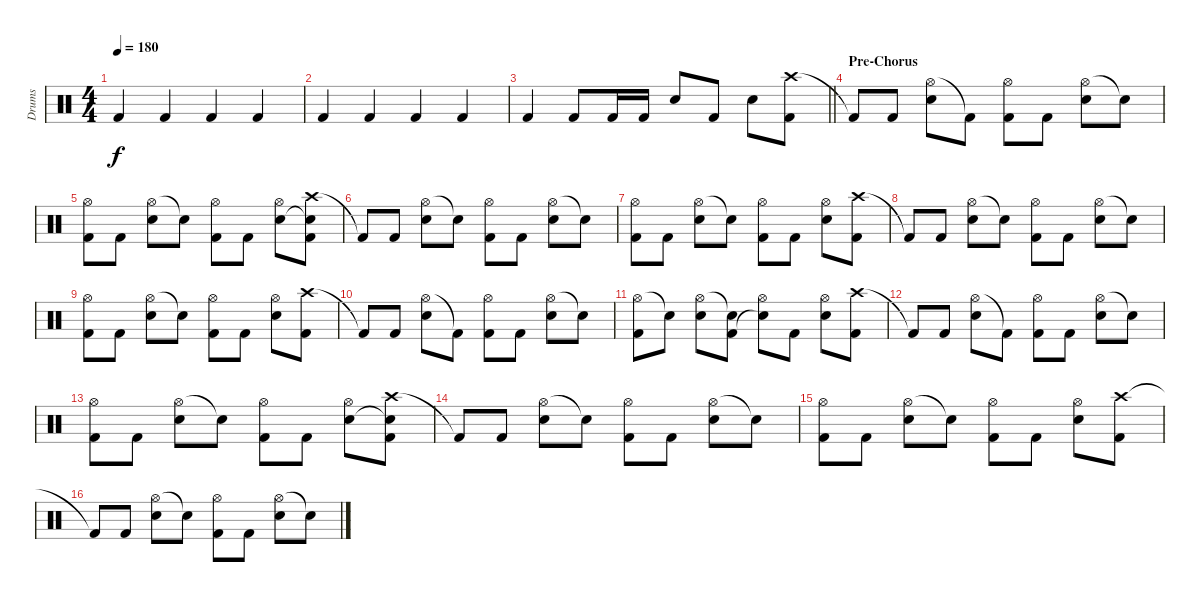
\track ("Drums" "Drums") {instrument percussion}
\staff {score}
\articulation defaults
\ts (4 4)
\tempo 180
\clef neutral
\ks c "Kick (hit) 2".4{dy f} "Kick (hit) 2".4 "Kick (hit) 2".4 "Kick (hit) 2".4
|
"Kick (hit) 2".4 "Kick (hit) 2".4 "Kick (hit) 2".4 "Kick (hit) 2".4 |
\barLineRight lightlight "Kick (hit) 2".4 "Kick (hit) 2".8 "Kick (hit) 2".16 "Kick (hit) 2".16 "Electric Snare (hit)".8 "Kick (hit) 2".8 "Electric Snare (hit)".8
("Crash high (hit)" "Kick (hit) 2").8 |
\section ("" "Pre-Chorus")
"Kick (hit) 2"{t}.8 "Kick (hit) 2".8 ("Hi-Hat (open)" "Electric Snare (hit)").8 "Kick (hit) 2"{t}.8 ("Hi-Hat (open)" "Kick (hit) 2").8 "Kick (hit) 2".8 ("Hi-Hat (open)" "Electric Snare (hit)").8 "Snare (hit)"{t}.8 |
("Hi-Hat (open)" "Kick (hit) 2").8 "Kick (hit) 2".8 ("Hi-Hat (open)" "Electric Snare (hit)").8 "Snare (hit)"{t}.8 ("Hi-Hat (open)" "Kick (hit) 2").8 "Kick (hit) 2".8 ("Hi-Hat (open)" "Electric Snare (hit)").8 ("Crash high (hit)" "Snare (hit)"{t} "Kick (hit) 2").8 |
"Kick (hit) 2"{t}.8 "Kick (hit) 2".8 ("Hi-Hat (open)" "Electric Snare (hit)").8 "Snare (hit)"{t}.8 ("Hi-Hat (open)" "Kick (hit) 2").8 "Kick (hit) 2".8 ("Hi-Hat (open)" "Electric Snare (hit)").8 "Snare (hit)"{t}.8 |
("Hi-Hat (open)" "Kick (hit) 2").8 "Kick (hit) 2".8 ("Hi-Hat (open)" "Electric Snare (hit)").8 "Snare (hit)"{t}.8 ("Hi-Hat (open)" "Kick (hit) 2").8 "Kick (hit) 2".8 ("Hi-Hat (open)" "Electric Snare (hit)").8 ("Crash high (hit)" "Kick (hit) 2").8 |
"Kick (hit) 2"{t}.8 "Kick (hit) 2".8 ("Hi-Hat (open)" "Electric Snare (hit)").8 "Snare (hit)"{t}.8 ("Hi-Hat (open)" "Kick (hit) 2").8 "Kick (hit) 2".8 ("Hi-Hat (open)" "Electric Snare (hit)").8 "Snare (hit)"{t}.8 |
("Hi-Hat (open)" "Kick (hit) 2").8 "Kick (hit) 2".8 ("Hi-Hat (open)" "Electric Snare (hit)").8 "Snare (hit)"{t}.8 ("Hi-Hat (open)" "Kick (hit) 2").8 "Kick (hit) 2".8 ("Hi-Hat (open)" "Electric Snare (hit)").8 ("Crash high (hit)" "Kick (hit) 2").8 |
"Kick (hit) 2"{t}.8 "Kick (hit) 2".8 ("Hi-Hat (open)" "Electric Snare (hit)").8 "Kick (hit) 2"{t}.8 ("Hi-Hat (open)" "Kick (hit) 2").8 "Kick (hit) 2".8 ("Hi-Hat (open)" "Electric Snare (hit)").8 "Snare (hit)"{t}.8 |
("Hi-Hat (open)" "Kick (hit) 2").8 "Snare (hit)"{t}.8 ("Hi-Hat (open)" "Electric Snare (hit)").8 ("Snare (hit)"{t} "Kick (hit) 2").8 ("Hi-Hat (open)" "Snare (hit)"{t}).8 "Kick (hit) 2".8 ("Hi-Hat (open)" "Electric Snare (hit)").8 ("Crash high (hit)" "Kick (hit) 2").8 |
"Kick (hit) 2"{t}.8 "Kick (hit) 2".8 ("Hi-Hat (open)" "Electric Snare (hit)").8 "Kick (hit) 2"{t}.8 ("Hi-Hat (open)" "Kick (hit) 2").8 "Kick (hit) 2".8 ("Hi-Hat (open)" "Electric Snare (hit)").8 "Snare (hit)"{t}.8 |
("Hi-Hat (open)" "Kick (hit) 2").8 "Kick (hit) 2".8 ("Hi-Hat (open)" "Electric Snare (hit)").8 "Snare (hit)"{t}.8 ("Hi-Hat (open)" "Kick (hit) 2").8 "Kick (hit) 2".8 ("Hi-Hat (open)" "Electric Snare (hit)").8 ("Crash high (hit)" "Snare (hit)"{t} "Kick (hit) 2").8 |
"Kick (hit) 2"{t}.8 "Kick (hit) 2".8 ("Hi-Hat (open)" "Electric Snare (hit)").8 "Snare (hit)"{t}.8 ("Hi-Hat (open)" "Kick (hit) 2").8 "Kick (hit) 2".8 ("Hi-Hat (open)" "Electric Snare (hit)").8 "Snare (hit)"{t}.8 |
("Hi-Hat (open)" "Kick (hit) 2").8 "Kick (hit) 2".8 ("Hi-Hat (open)" "Electric Snare (hit)").8 "Snare (hit)"{t}.8 ("Hi-Hat (open)" "Kick (hit) 2").8 "Kick (hit) 2".8 ("Hi-Hat (open)" "Electric Snare (hit)").8 ("Crash high (hit)" "Kick (hit) 2").8 |
"Kick (hit) 2"{t}.8 "Kick (hit) 2".8 ("Hi-Hat (open)" "Electric Snare (hit)").8 "Snare (hit)"{t}.8 ("Hi-Hat (open)" "Kick (hit) 2").8 "Kick (hit) 2".8 ("Hi-Hat (open)" "Electric Snare (hit)").8 "Snare (hit)"{t}.8
